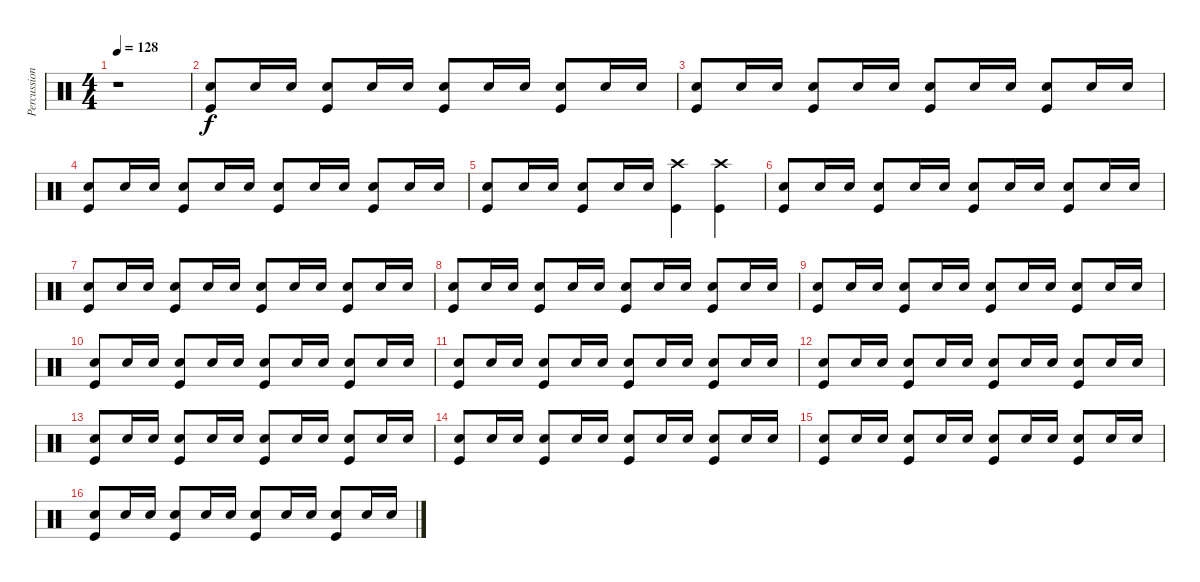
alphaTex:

\track ("Percussion" "Percussion") {instrument percussion}
\staff {score}
\articulation defaults
\ts (4 4)
\tempo 128
\clef neutral
\ks c
r.1{dy f} |
("Snare (hit) 2" "Kick (hit)").8 "Snare (hit) 2".16 "Snare (hit) 2".16 ("Snare (hit) 2" "Kick (hit)").8 "Snare (hit) 2".16 "Snare (hit) 2".16 ("Snare (hit) 2" "Kick (hit)").8 "Snare (hit) 2".16 "Snare (hit) 2".16 ("Snare (hit) 2" "Kick (hit)").8 "Snare (hit) 2".16 "Snare (hit) 2".16 |
("Snare (hit) 2" "Kick (hit)").8 "Snare (hit) 2".16 "Snare (hit) 2".16 ("Snare (hit) 2" "Kick (hit)").8 "Snare (hit) 2".16 "Snare (hit) 2".16 ("Snare (hit) 2" "Kick (hit)").8 "Snare (hit) 2".16 "Snare (hit) 2".16 ("Snare (hit) 2" "Kick (hit)").8 "Snare (hit) 2".16 "Snare (hit) 2".16 |
("Snare (hit) 2" "Kick (hit)").8 "Snare (hit) 2".16 "Snare (hit) 2".16 ("Snare (hit) 2" "Kick (hit)").8 "Snare (hit) 2".16 "Snare (hit) 2".16 ("Snare (hit) 2" "Kick (hit)").8 "Snare (hit) 2".16 "Snare (hit) 2".16 ("Snare (hit) 2" "Kick (hit)").8 "Snare (hit) 2".16 "Snare (hit) 2".16 |
("Snare (hit) 2" "Kick (hit)").8 "Snare (hit) 2".16 "Snare (hit) 2".16 ("Snare (hit) 2" "Kick (hit)").8 "Snare (hit) 2".16 "Snare (hit) 2".16 ("Crash high (hit)" "Kick (hit)").4 ("Crash high (hit)" "Kick (hit)").4 |
("Snare (hit) 2" "Kick (hit)").8 "Snare (hit) 2".16 "Snare (hit) 2".16 ("Snare (hit) 2" "Kick (hit)").8 "Snare (hit) 2".16 "Snare (hit) 2".16 ("Snare (hit) 2" "Kick (hit)").8 "Snare (hit) 2".16 "Snare (hit) 2".16 ("Snare (hit) 2" "Kick (hit)").8 "Snare (hit) 2".16 "Snare (hit) 2".16 |
("Snare (hit) 2" "Kick (hit)").8 "Snare (hit) 2".16 "Snare (hit) 2".16 ("Snare (hit) 2" "Kick (hit)").8 "Snare (hit) 2".16 "Snare (hit) 2".16 ("Snare (hit) 2" "Kick (hit)").8 "Snare (hit) 2".16 "Snare (hit) 2".16 ("Snare (hit) 2" "Kick (hit)").8 "Snare (hit) 2".16 "Snare (hit) 2".16 |
("Snare (hit) 2" "Kick (hit)").8 "Snare (hit) 2".16 "Snare (hit) 2".16 ("Snare (hit) 2" "Kick (hit)").8 "Snare (hit) 2".16 "Snare (hit) 2".16 ("Snare (hit) 2" "Kick (hit)").8 "Snare (hit) 2".16 "Snare (hit) 2".16 ("Snare (hit) 2" "Kick (hit)").8 "Snare (hit) 2".16 "Snare (hit) 2".16 |
("Snare (hit) 2" "Kick (hit)").8 "Snare (hit) 2".16 "Snare (hit) 2".16 ("Snare (hit) 2" "Kick (hit)").8 "Snare (hit) 2".16 "Snare (hit) 2".16 ("Snare (hit) 2" "Kick (hit)").8 "Snare (hit) 2".16 "Snare (hit) 2".16 ("Snare (hit) 2" "Kick (hit)").8 "Snare (hit) 2".16 "Snare (hit) 2".16 |
("Snare (hit) 2" "Kick (hit)").8 "Snare (hit) 2".16 "Snare (hit) 2".16 ("Snare (hit) 2" "Kick (hit)").8 "Snare (hit) 2".16 "Snare (hit) 2".16 ("Snare (hit) 2" "Kick (hit)").8 "Snare (hit) 2".16 "Snare (hit) 2".16 ("Snare (hit) 2" "Kick (hit)").8 "Snare (hit) 2".16 "Snare (hit) 2".16 |
("Snare (hit) 2" "Kick (hit)").8 "Snare (hit) 2".16 "Snare (hit) 2".16 ("Snare (hit) 2" "Kick (hit)").8 "Snare (hit) 2".16 "Snare (hit) 2".16 ("Snare (hit) 2" "Kick (hit)").8 "Snare (hit) 2".16 "Snare (hit) 2".16 ("Snare (hit) 2" "Kick (hit)").8 "Snare (hit) 2".16 "Snare (hit) 2".16 |
("Snare (hit) 2" "Kick (hit)").8 "Snare (hit) 2".16 "Snare (hit) 2".16 ("Snare (hit) 2" "Kick (hit)").8 "Snare (hit) 2".16 "Snare (hit) 2".16 ("Snare (hit) 2" "Kick (hit)").8 "Snare (hit) 2".16 "Snare (hit) 2".16 ("Snare (hit) 2" "Kick (hit)").8 "Snare (hit) 2".16 "Snare (hit) 2".16 |
("Snare (hit) 2" "Kick (hit)").8 "Snare (hit) 2".16 "Snare (hit) 2".16 ("Snare (hit) 2" "Kick (hit)").8 "Snare (hit) 2".16 "Snare (hit) 2".16 ("Snare (hit) 2" "Kick (hit)").8 "Snare (hit) 2".16 "Snare (hit) 2".16 ("Snare (hit) 2" "Kick (hit)").8 "Snare (hit) 2".16 "Snare (hit) 2".16 |
("Snare (hit) 2" "Kick (hit)").8 "Snare (hit) 2".16 "Snare (hit) 2".16 ("Snare (hit) 2" "Kick (hit)").8 "Snare (hit) 2".16 "Snare (hit) 2".16 ("Snare (hit) 2" "Kick (hit)").8 "Snare (hit) 2".16 "Snare (hit) 2".16 ("Snare (hit) 2" "Kick (hit)").8 "Snare (hit) 2".16 "Snare (hit) 2".16 |
("Snare (hit) 2" "Kick (hit)").8 "Snare (hit) 2".16 "Snare (hit) 2".16 ("Snare (hit) 2" "Kick (hit)").8 "Snare (hit) 2".16 "Snare (hit) 2".16 ("Snare (hit) 2" "Kick (hit)").8 "Snare (hit) 2".16 "Snare (hit) 2".16 ("Snare (hit) 2" "Kick (hit)").8 "Snare (hit) 2".16 "Snare (hit) 2".16 |
("Snare (hit) 2" "Kick (hit)").8 "Snare (hit) 2".16 "Snare (hit) 2".16 ("Snare (hit) 2" "Kick (hit)").8 "Snare (hit) 2".16 "Snare (hit) 2".16 ("Snare (hit) 2" "Kick (hit)").8 "Snare (hit) 2".16 "Snare (hit) 2".16 ("Snare (hit) 2" "Kick (hit)").8 "Snare (hit) 2".16 "Snare (hit) 2".16
